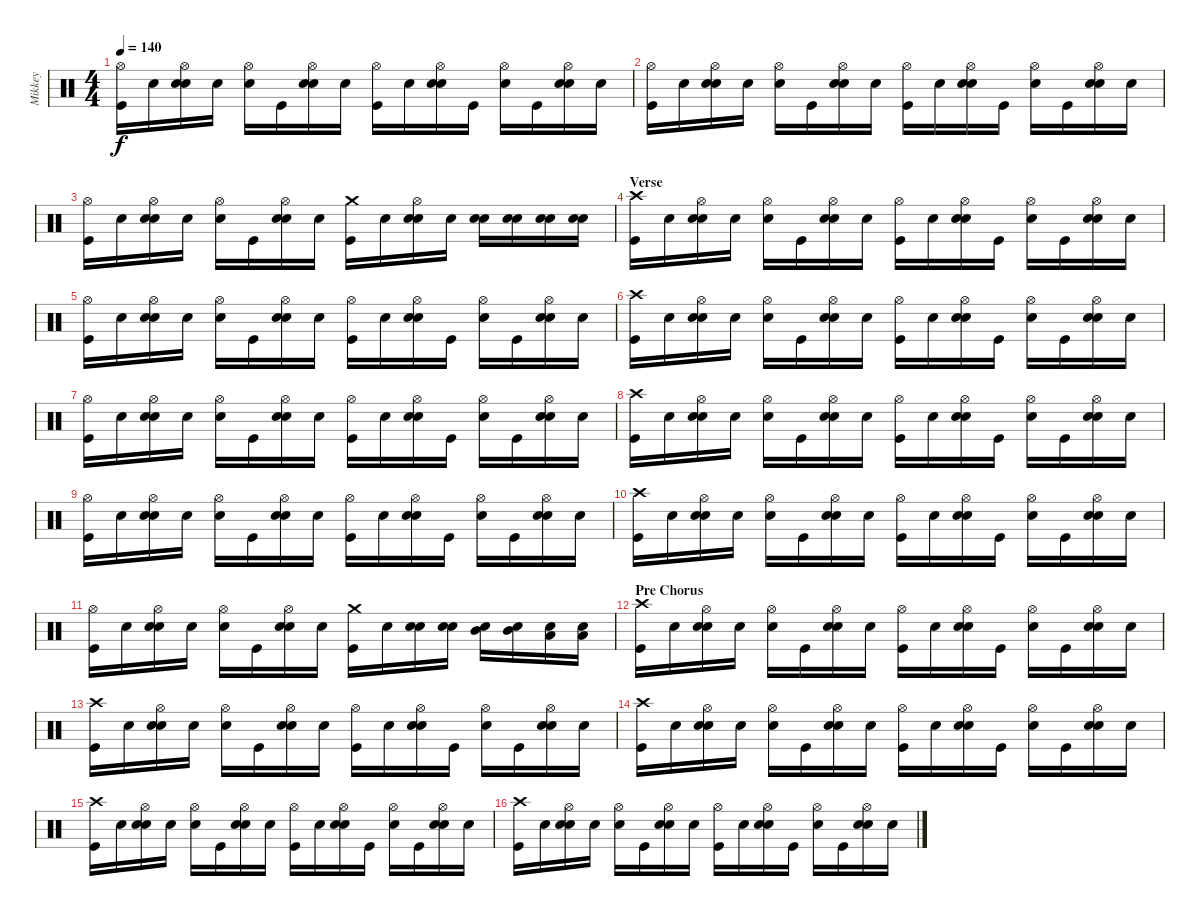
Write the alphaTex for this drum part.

\track ("Mikkey" "Mikkey") {instrument percussion}
\staff {score}
\articulation defaults
\ts (4 4)
\tempo 140
\clef neutral
\ks c
("Hi-Hat (open)" "Kick (hit)").16{dy f} "Snare (hit)".16 ("Hi-Hat (open)" "Electric Snare (hit)" "Snare (hit)").16 "Snare (hit)".16 ("Hi-Hat (open)" "Snare (hit)").16 "Kick (hit)".16 ("Hi-Hat (open)" "Electric Snare (hit)" "Snare (hit)").16 "Snare (hit)".16 ("Hi-Hat (open)" "Kick (hit)").16 "Snare (hit)".16 ("Hi-Hat (open)" "Electric Snare (hit)" "Snare (hit)").16 "Kick (hit)".16 ("Hi-Hat (open)" "Snare (hit)").16 "Kick (hit)".16 ("Hi-Hat (open)" "Electric Snare (hit)" "Snare (hit)").16 "Snare (hit)".16 |
("Hi-Hat (open)" "Kick (hit)").16 "Snare (hit)".16 ("Hi-Hat (open)" "Electric Snare (hit)" "Snare (hit)").16 "Snare (hit)".16 ("Hi-Hat (open)" "Snare (hit)").16 "Kick (hit)".16 ("Hi-Hat (open)" "Electric Snare (hit)" "Snare (hit)").16 "Snare (hit)".16 ("Hi-Hat (open)" "Kick (hit)").16 "Snare (hit)".16 ("Hi-Hat (open)" "Electric Snare (hit)" "Snare (hit)").16 "Kick (hit)".16 ("Hi-Hat (open)" "Snare (hit)").16 "Kick (hit)".16 ("Hi-Hat (open)" "Electric Snare (hit)" "Snare (hit)").16 "Snare (hit)".16 |
("Hi-Hat (open)" "Kick (hit)").16 "Snare (hit)".16 ("Hi-Hat (open)" "Electric Snare (hit)" "Snare (hit)").16 "Snare (hit)".16 ("Hi-Hat (open)" "Snare (hit)").16 "Kick (hit)".16 ("Hi-Hat (open)" "Electric Snare (hit)" "Snare (hit)").16 "Snare (hit)".16 ("Crash medium (hit)" "Kick (hit)").16 "Snare (hit)".16 ("Hi-Hat (open)" "Electric Snare (hit)" "Snare (hit)").16 "Snare (hit)".16 ("Electric Snare (hit)" "Snare (hit)").16 ("Electric Snare (hit)" "Snare (hit)").16 ("Electric Snare (hit)" "Snare (hit)").16 ("Electric Snare (hit)" "Snare (hit)").16 |
\section ("" "Verse")
("Crash high (hit)" "Kick (hit)").16 "Snare (hit)".16 ("Hi-Hat (open)" "Electric Snare (hit)" "Snare (hit)").16 "Snare (hit)".16 ("Hi-Hat (open)" "Snare (hit)").16 "Kick (hit)".16 ("Hi-Hat (open)" "Electric Snare (hit)" "Snare (hit)").16 "Snare (hit)".16 ("Hi-Hat (open)" "Kick (hit)").16 "Snare (hit)".16 ("Hi-Hat (open)" "Electric Snare (hit)" "Snare (hit)").16 "Kick (hit)".16 ("Hi-Hat (open)" "Snare (hit)").16 "Kick (hit)".16 ("Hi-Hat (open)" "Electric Snare (hit)" "Snare (hit)").16 "Snare (hit)".16 |
("Hi-Hat (open)" "Kick (hit)").16 "Snare (hit)".16 ("Hi-Hat (open)" "Electric Snare (hit)" "Snare (hit)").16 "Snare (hit)".16 ("Hi-Hat (open)" "Snare (hit)").16 "Kick (hit)".16 ("Hi-Hat (open)" "Electric Snare (hit)" "Snare (hit)").16 "Snare (hit)".16 ("Hi-Hat (open)" "Kick (hit)").16 "Snare (hit)".16 ("Hi-Hat (open)" "Electric Snare (hit)" "Snare (hit)").16 "Kick (hit)".16 ("Hi-Hat (open)" "Snare (hit)").16 "Kick (hit)".16 ("Hi-Hat (open)" "Electric Snare (hit)" "Snare (hit)").16 "Snare (hit)".16 |
("Crash high (hit)" "Kick (hit)").16 "Snare (hit)".16 ("Hi-Hat (open)" "Electric Snare (hit)" "Snare (hit)").16 "Snare (hit)".16 ("Hi-Hat (open)" "Snare (hit)").16 "Kick (hit)".16 ("Hi-Hat (open)" "Electric Snare (hit)" "Snare (hit)").16 "Snare (hit)".16 ("Hi-Hat (open)" "Kick (hit)").16 "Snare (hit)".16 ("Hi-Hat (open)" "Electric Snare (hit)" "Snare (hit)").16 "Kick (hit)".16 ("Hi-Hat (open)" "Snare (hit)").16 "Kick (hit)".16 ("Hi-Hat (open)" "Electric Snare (hit)" "Snare (hit)").16 "Snare (hit)".16 |
("Hi-Hat (open)" "Kick (hit)").16 "Snare (hit)".16 ("Hi-Hat (open)" "Electric Snare (hit)" "Snare (hit)").16 "Snare (hit)".16 ("Hi-Hat (open)" "Snare (hit)").16 "Kick (hit)".16 ("Hi-Hat (open)" "Electric Snare (hit)" "Snare (hit)").16 "Snare (hit)".16 ("Hi-Hat (open)" "Kick (hit)").16 "Snare (hit)".16 ("Hi-Hat (open)" "Electric Snare (hit)" "Snare (hit)").16 "Kick (hit)".16 ("Hi-Hat (open)" "Snare (hit)").16 "Kick (hit)".16 ("Hi-Hat (open)" "Electric Snare (hit)" "Snare (hit)").16 "Snare (hit)".16 |
("Crash high (hit)" "Kick (hit)").16 "Snare (hit)".16 ("Hi-Hat (open)" "Electric Snare (hit)" "Snare (hit)").16 "Snare (hit)".16 ("Hi-Hat (open)" "Snare (hit)").16 "Kick (hit)".16 ("Hi-Hat (open)" "Electric Snare (hit)" "Snare (hit)").16 "Snare (hit)".16 ("Hi-Hat (open)" "Kick (hit)").16 "Snare (hit)".16 ("Hi-Hat (open)" "Electric Snare (hit)" "Snare (hit)").16 "Kick (hit)".16 ("Hi-Hat (open)" "Snare (hit)").16 "Kick (hit)".16 ("Hi-Hat (open)" "Electric Snare (hit)" "Snare (hit)").16 "Snare (hit)".16 |
("Hi-Hat (open)" "Kick (hit)").16 "Snare (hit)".16 ("Hi-Hat (open)" "Electric Snare (hit)" "Snare (hit)").16 "Snare (hit)".16 ("Hi-Hat (open)" "Snare (hit)").16 "Kick (hit)".16 ("Hi-Hat (open)" "Electric Snare (hit)" "Snare (hit)").16 "Snare (hit)".16 ("Hi-Hat (open)" "Kick (hit)").16 "Snare (hit)".16 ("Hi-Hat (open)" "Electric Snare (hit)" "Snare (hit)").16 "Kick (hit)".16 ("Hi-Hat (open)" "Snare (hit)").16 "Kick (hit)".16 ("Hi-Hat (open)" "Electric Snare (hit)" "Snare (hit)").16 "Snare (hit)".16 |
("Crash high (hit)" "Kick (hit)").16 "Snare (hit)".16 ("Hi-Hat (open)" "Electric Snare (hit)" "Snare (hit)").16 "Snare (hit)".16 ("Hi-Hat (open)" "Snare (hit)").16 "Kick (hit)".16 ("Hi-Hat (open)" "Electric Snare (hit)" "Snare (hit)").16 "Snare (hit)".16 ("Hi-Hat (open)" "Kick (hit)").16 "Snare (hit)".16 ("Hi-Hat (open)" "Electric Snare (hit)" "Snare (hit)").16 "Kick (hit)".16 ("Hi-Hat (open)" "Snare (hit)").16 "Kick (hit)".16 ("Hi-Hat (open)" "Electric Snare (hit)" "Snare (hit)").16 "Snare (hit)".16 |
("Hi-Hat (open)" "Kick (hit)").16 "Snare (hit)".16 ("Hi-Hat (open)" "Electric Snare (hit)" "Snare (hit)").16 "Snare (hit)".16 ("Hi-Hat (open)" "Snare (hit)").16 "Kick (hit)".16 ("Hi-Hat (open)" "Electric Snare (hit)" "Snare (hit)").16 "Snare (hit)".16 ("Crash medium (hit)" "Kick (hit)").16 "Snare (hit)".16 ("Electric Snare (hit)" "Snare (hit)").16 ("Electric Snare (hit)" "Snare (hit)").16 ("Mid Tom (hit)" "Snare (hit)").16 ("Mid Tom (hit)" "Snare (hit)").16 ("Low Tom (hit)" "Snare (hit)").16 ("Low Tom (hit)" "Snare (hit)").16 |
\section ("" "Pre Chorus")
("Crash high (hit)" "Kick (hit)").16 "Snare (hit)".16 ("Hi-Hat (open)" "Electric Snare (hit)" "Snare (hit)").16 "Snare (hit)".16 ("Hi-Hat (open)" "Snare (hit)").16 "Kick (hit)".16 ("Hi-Hat (open)" "Electric Snare (hit)" "Snare (hit)").16 "Snare (hit)".16 ("Hi-Hat (open)" "Kick (hit)").16 "Snare (hit)".16 ("Hi-Hat (open)" "Electric Snare (hit)" "Snare (hit)").16 "Kick (hit)".16 ("Hi-Hat (open)" "Snare (hit)").16 "Kick (hit)".16 ("Hi-Hat (open)" "Electric Snare (hit)" "Snare (hit)").16 "Snare (hit)".16 |
("Crash high (hit)" "Kick (hit)").16 "Snare (hit)".16 ("Hi-Hat (open)" "Electric Snare (hit)" "Snare (hit)").16 "Snare (hit)".16 ("Hi-Hat (open)" "Snare (hit)").16 "Kick (hit)".16 ("Hi-Hat (open)" "Electric Snare (hit)" "Snare (hit)").16 "Snare (hit)".16 ("Hi-Hat (open)" "Kick (hit)").16 "Snare (hit)".16 ("Hi-Hat (open)" "Electric Snare (hit)" "Snare (hit)").16 "Kick (hit)".16 ("Hi-Hat (open)" "Snare (hit)").16 "Kick (hit)".16 ("Hi-Hat (open)" "Electric Snare (hit)" "Snare (hit)").16 "Snare (hit)".16 |
("Crash high (hit)" "Kick (hit)").16 "Snare (hit)".16 ("Hi-Hat (open)" "Electric Snare (hit)" "Snare (hit)").16 "Snare (hit)".16 ("Hi-Hat (open)" "Snare (hit)").16 "Kick (hit)".16 ("Hi-Hat (open)" "Electric Snare (hit)" "Snare (hit)").16 "Snare (hit)".16 ("Hi-Hat (open)" "Kick (hit)").16 "Snare (hit)".16 ("Hi-Hat (open)" "Electric Snare (hit)" "Snare (hit)").16 "Kick (hit)".16 ("Hi-Hat (open)" "Snare (hit)").16 "Kick (hit)".16 ("Hi-Hat (open)" "Electric Snare (hit)" "Snare (hit)").16 "Snare (hit)".16 |
("Crash high (hit)" "Kick (hit)").16 "Snare (hit)".16 ("Hi-Hat (open)" "Electric Snare (hit)" "Snare (hit)").16 "Snare (hit)".16 ("Hi-Hat (open)" "Snare (hit)").16 "Kick (hit)".16 ("Hi-Hat (open)" "Electric Snare (hit)" "Snare (hit)").16 "Snare (hit)".16 ("Hi-Hat (open)" "Kick (hit)").16 "Snare (hit)".16 ("Hi-Hat (open)" "Electric Snare (hit)" "Snare (hit)").16 "Kick (hit)".16 ("Hi-Hat (open)" "Snare (hit)").16 "Kick (hit)".16 ("Hi-Hat (open)" "Electric Snare (hit)" "Snare (hit)").16 "Snare (hit)".16 |
("Crash high (hit)" "Kick (hit)").16 "Snare (hit)".16 ("Hi-Hat (open)" "Electric Snare (hit)" "Snare (hit)").16 "Snare (hit)".16 ("Hi-Hat (open)" "Snare (hit)").16 "Kick (hit)".16 ("Hi-Hat (open)" "Electric Snare (hit)" "Snare (hit)").16 "Snare (hit)".16 ("Hi-Hat (open)" "Kick (hit)").16 "Snare (hit)".16 ("Hi-Hat (open)" "Electric Snare (hit)" "Snare (hit)").16 "Kick (hit)".16 ("Hi-Hat (open)" "Snare (hit)").16 "Kick (hit)".16 ("Hi-Hat (open)" "Electric Snare (hit)" "Snare (hit)").16 "Snare (hit)".16
